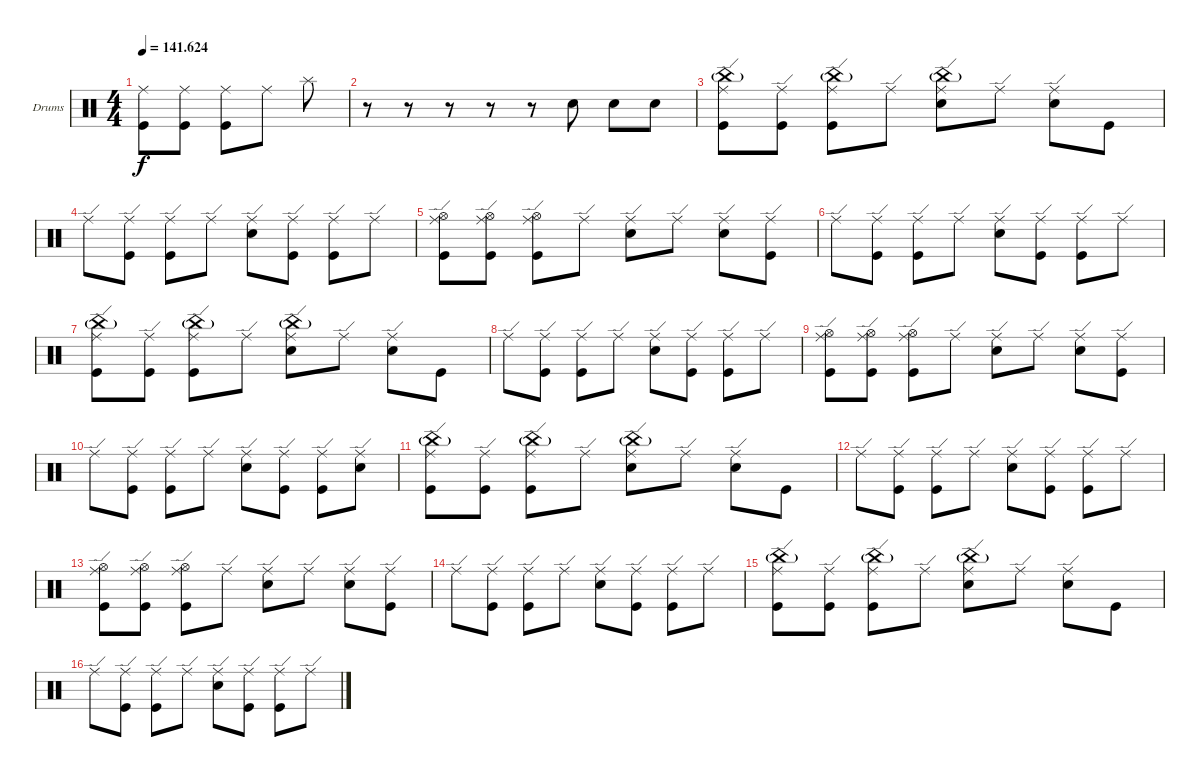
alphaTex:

\defaultSystemsLayout 4
\bracketExtendMode groupsimilarinstruments
\firstSystemTrackNameOrientation horizontal
\otherSystemsTrackNameOrientation horizontal
\track ("Drumkit" "Drums") {instrument percussion}
\staff {score}
\articulation defaults
\ts (4 4)
\tempo
141.624
\accidentals auto
\clef neutral
\ottava regular
\simile none
\ks c
("Ride (middle)" "Kick (hit)").8{dy f} ("Ride (middle)" "Kick (hit)").8 ("Ride (middle)" "Kick (hit)").8 "Ride (middle)".8 "Splash (hit)".8 |
r.8 r.8 r.8 r.8 r.8 "Snare (hit) 2".8 "Snare (hit) 2".8 "Snare (hit) 2".8 |
("Kick (hit)" "Ride (edge)" "China (hit)"{g}).8 ("Kick (hit)" "Ride (edge)").8 ("Kick (hit)" "Ride (edge)" "China (hit)"{g}).8 "Ride (edge)".8 ("Snare (hit) 2" "Ride (edge)" "China (hit)"{g}).8 "Ride (edge)".8 ("Ride (edge)" "Snare (hit) 2").8 "Kick (hit)".8 |
"Ride (edge)".8 ("Kick (hit)" "Ride (edge)").8 ("Ride (edge)" "Kick (hit)").8 "Ride (edge)".8 ("Ride (edge)" "Snare (hit) 2").8 ("Kick (hit)" "Ride (edge)").8 ("Ride (edge)" "Kick (hit)").8 "Ride (edge)".8 |
("Hi-Hat (open)" "Kick (hit)" "Ride (edge)").8 ("Hi-Hat (open)" "Kick (hit)" "Ride (edge)").8 ("Hi-Hat (open)" "Kick (hit)" "Ride (edge)").8 "Ride (edge)".8 ("Ride (edge)" "Snare (hit) 2").8 "Ride (edge)".8 ("Ride (edge)" "Snare (hit) 2").8 ("Ride (edge)" "Kick (hit)").8 |
"Ride (edge)".8 ("Kick (hit)" "Ride (edge)").8 ("Ride (edge)" "Kick (hit)").8 "Ride (edge)".8 ("Ride (edge)" "Snare (hit) 2").8 ("Kick (hit)" "Ride (edge)").8 ("Ride (edge)" "Kick (hit)").8 "Ride (edge)".8 |
("Kick (hit)" "Ride (edge)" "China (hit)"{g}).8 ("Kick (hit)" "Ride (edge)").8 ("Kick (hit)" "Ride (edge)" "China (hit)"{g}).8 "Ride (edge)".8 ("Snare (hit) 2" "Ride (edge)" "China (hit)"{g}).8 "Ride (edge)".8 ("Ride (edge)" "Snare (hit) 2").8 "Kick (hit)".8 |
"Ride (edge)".8 ("Kick (hit)" "Ride (edge)").8 ("Ride (edge)" "Kick (hit)").8 "Ride (edge)".8 ("Ride (edge)" "Snare (hit) 2").8 ("Kick (hit)" "Ride (edge)").8 ("Ride (edge)" "Kick (hit)").8 "Ride (edge)".8 |
("Hi-Hat (open)" "Kick (hit)" "Ride (edge)").8 ("Hi-Hat (open)" "Kick (hit)" "Ride (edge)").8 ("Hi-Hat (open)" "Kick (hit)" "Ride (edge)").8 "Ride (edge)".8 ("Ride (edge)" "Snare (hit) 2").8 "Ride (edge)".8 ("Ride (edge)" "Snare (hit) 2").8 ("Ride (edge)" "Kick (hit)").8 |
"Ride (edge)".8 ("Kick (hit)" "Ride (edge)").8 ("Ride (edge)" "Kick (hit)").8 "Ride (edge)".8 ("Ride (edge)" "Snare (hit) 2").8 ("Kick (hit)" "Ride (edge)").8 ("Ride (edge)" "Kick (hit)").8 ("Ride (edge)" "Snare (hit) 2").8 |
("Kick (hit)" "Ride (edge)" "China (hit)"{g}).8 ("Kick (hit)" "Ride (edge)").8 ("Kick (hit)" "Ride (edge)" "China (hit)"{g}).8 "Ride (edge)".8 ("Snare (hit) 2" "Ride (edge)" "China (hit)"{g}).8 "Ride (edge)".8 ("Ride (edge)" "Snare (hit) 2").8 "Kick (hit)".8 |
"Ride (edge)".8 ("Kick (hit)" "Ride (edge)").8 ("Ride (edge)" "Kick (hit)").8 "Ride (edge)".8 ("Ride (edge)" "Snare (hit) 2").8 ("Kick (hit)" "Ride (edge)").8 ("Ride (edge)" "Kick (hit)").8 "Ride (edge)".8 |
("Hi-Hat (open)" "Kick (hit)" "Ride (edge)").8 ("Hi-Hat (open)" "Kick (hit)" "Ride (edge)").8 ("Hi-Hat (open)" "Kick (hit)" "Ride (edge)").8 "Ride (edge)".8 ("Ride (edge)" "Snare (hit) 2").8 "Ride (edge)".8 ("Ride (edge)" "Snare (hit) 2").8 ("Ride (edge)" "Kick (hit)").8 |
"Ride (edge)".8 ("Kick (hit)" "Ride (edge)").8 ("Ride (edge)" "Kick (hit)").8 "Ride (edge)".8 ("Ride (edge)" "Snare (hit) 2").8 ("Kick (hit)" "Ride (edge)").8 ("Ride (edge)" "Kick (hit)").8 "Ride (edge)".8 |
("Kick (hit)" "Ride (edge)" "China (hit)"{g}).8 ("Kick (hit)" "Ride (edge)").8 ("Kick (hit)" "Ride (edge)" "China (hit)"{g}).8 "Ride (edge)".8 ("Snare (hit) 2" "Ride (edge)" "China (hit)"{g}).8 "Ride (edge)".8 ("Ride (edge)" "Snare (hit) 2").8 "Kick (hit)".8 |
"Ride (edge)".8 ("Kick (hit)" "Ride (edge)").8 ("Ride (edge)" "Kick (hit)").8 "Ride (edge)".8 ("Ride (edge)" "Snare (hit) 2").8 ("Kick (hit)" "Ride (edge)").8 ("Ride (edge)" "Kick (hit)").8 "Ride (edge)".8
